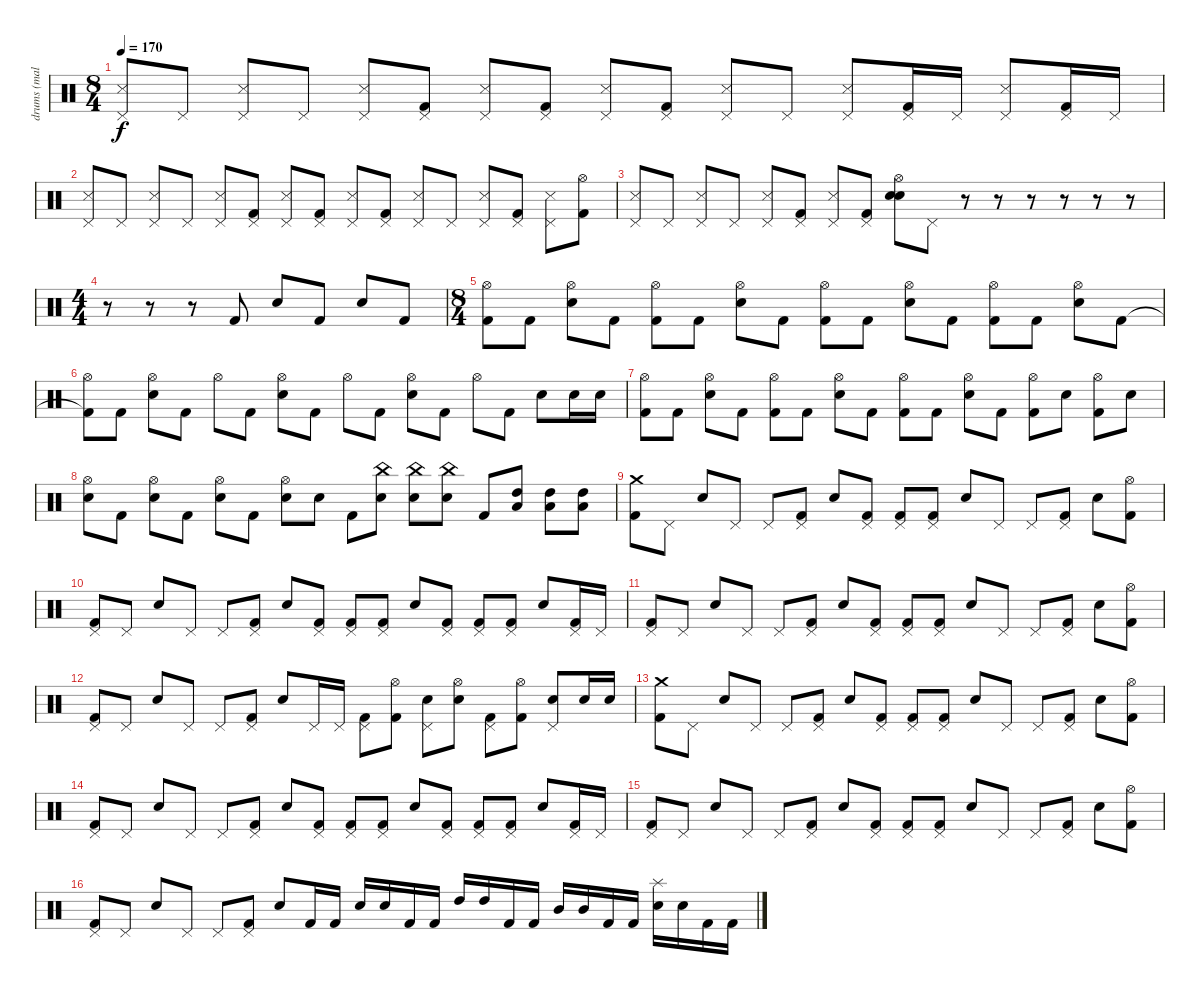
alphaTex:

\track ("drums (male)" "drums (mal") {mute instrument percussion}
\staff {score}
\articulation defaults
\ts (8 4)
\tempo 170
\clef neutral
\ks c
("Snare (side stick) 3" "Pedal Hi-Hat (hit)").8{dy f} "Pedal Hi-Hat (hit)".8 ("Snare (side stick) 3" "Pedal Hi-Hat (hit)").8 "Pedal Hi-Hat (hit)".8 ("Snare (side stick) 3" "Pedal Hi-Hat (hit)").8 ("Kick (hit) 2" "Pedal Hi-Hat (hit)").8 ("Snare (side stick) 3" "Pedal Hi-Hat (hit)").8 ("Kick (hit) 2" "Pedal Hi-Hat (hit)").8 ("Snare (side stick) 3" "Pedal Hi-Hat (hit)").8 ("Kick (hit) 2" "Pedal Hi-Hat (hit)").8 ("Snare (side stick) 3" "Pedal Hi-Hat (hit)").8 "Pedal Hi-Hat (hit)".8 ("Snare (side stick) 3" "Pedal Hi-Hat (hit)").8 ("Kick (hit) 2" "Pedal Hi-Hat (hit)").16 "Pedal Hi-Hat (hit)".16 ("Snare (side stick) 3" "Pedal Hi-Hat (hit)").8 ("Kick (hit) 2" "Pedal Hi-Hat (hit)").16 "Pedal Hi-Hat (hit)".16 |
("Snare (side stick) 3" "Pedal Hi-Hat (hit)").8 "Pedal Hi-Hat (hit)".8 ("Snare (side stick) 3" "Pedal Hi-Hat (hit)").8 "Pedal Hi-Hat (hit)".8 ("Snare (side stick) 3" "Pedal Hi-Hat (hit)").8 ("Kick (hit) 2" "Pedal Hi-Hat (hit)").8 ("Snare (side stick) 3" "Pedal Hi-Hat (hit)").8 ("Kick (hit) 2" "Pedal Hi-Hat (hit)").8 ("Snare (side stick) 3" "Pedal Hi-Hat (hit)").8 ("Kick (hit) 2" "Pedal Hi-Hat (hit)").8 ("Snare (side stick) 3" "Pedal Hi-Hat (hit)").8 "Pedal Hi-Hat (hit)".8 ("Snare (side stick) 3" "Pedal Hi-Hat (hit)").8 ("Kick (hit) 2" "Pedal Hi-Hat (hit)").8 ("Snare (side stick) 3" "Pedal Hi-Hat (hit)").8 ("Kick (hit) 2" "Hi-Hat (open)").8 |
("Snare (side stick) 3" "Pedal Hi-Hat (hit)").8 "Pedal Hi-Hat (hit)".8 ("Snare (side stick) 3" "Pedal Hi-Hat (hit)").8 "Pedal Hi-Hat (hit)".8 ("Snare (side stick) 3" "Pedal Hi-Hat (hit)").8 ("Kick (hit) 2" "Pedal Hi-Hat (hit)").8 ("Snare (side stick) 3" "Pedal Hi-Hat (hit)").8 ("Kick (hit) 2" "Pedal Hi-Hat (hit)").8 ("Electric Snare (hit)" "Metronome (bell)" "Hi-Hat (open)").8 "Pedal Hi-Hat (hit)".8 r.8 r.8 r.8 r.8 r.8 r.8 |
\ts (4 4)
r.8 r.8 r.8 "Kick (hit) 2".8 "Electric Snare (hit)".8 "Kick (hit) 2".8 "Electric Snare (hit)".8 "Kick (hit) 2".8 |
\ts (8 4)
("Kick (hit) 2" "Hi-Hat (open)").8 "Kick (hit) 2".8 ("Electric Snare (hit)" "Hi-Hat (open)").8 "Kick (hit) 2".8 ("Kick (hit) 2" "Hi-Hat (open)").8 "Kick (hit) 2".8 ("Electric Snare (hit)" "Hi-Hat (open)").8 "Kick (hit) 2".8 ("Kick (hit) 2" "Hi-Hat (open)").8 "Kick (hit) 2".8 ("Electric Snare (hit)" "Hi-Hat (open)").8 "Kick (hit) 2".8 ("Kick (hit) 2" "Hi-Hat (open)").8 "Kick (hit) 2".8 ("Electric Snare (hit)" "Hi-Hat (open)").8 "Kick (hit) 2".8 |
("Kick (hit) 2"{t} "Hi-Hat (open)").8 "Kick (hit) 2".8 ("Electric Snare (hit)" "Hi-Hat (open)").8 "Kick (hit) 2".8 "Hi-Hat (open)".8 "Kick (hit) 2".8 ("Electric Snare (hit)" "Hi-Hat (open)").8 "Kick (hit) 2".8 "Hi-Hat (open)".8 "Kick (hit) 2".8 ("Electric Snare (hit)" "Hi-Hat (open)").8 "Kick (hit) 2".8 "Hi-Hat (open)".8 "Kick (hit) 2".8 "Electric Snare (hit)".8 "Electric Snare (hit)".16 "Electric Snare (hit)".16 |
("Kick (hit) 2" "Hi-Hat (open)").8 "Kick (hit) 2".8 ("Electric Snare (hit)" "Hi-Hat (open)").8 "Kick (hit) 2".8 ("Kick (hit) 2" "Hi-Hat (open)").8 "Kick (hit) 2".8 ("Electric Snare (hit)" "Hi-Hat (open)").8 "Kick (hit) 2".8 ("Kick (hit) 2" "Hi-Hat (open)").8 "Kick (hit) 2".8 ("Electric Snare (hit)" "Hi-Hat (open)").8 "Kick (hit) 2".8 ("Kick (hit) 2" "Hi-Hat (open)").8 "Electric Snare (hit)".8 ("Kick (hit) 2" "Hi-Hat (open)").8 "Electric Snare (hit)".8 |
("Electric Snare (hit)" "Hi-Hat (open)").8 "Kick (hit) 2".8 ("Electric Snare (hit)" "Hi-Hat (open)").8 "Kick (hit) 2".8 ("Electric Snare (hit)" "Hi-Hat (open)").8 "Kick (hit) 2".8 ("Electric Snare (hit)" "Hi-Hat (open)").8 "Electric Snare (hit)".8 "Kick (hit) 2".8 ("Electric Snare (hit)" "China (hit)").8 ("Electric Snare (hit)" "China (hit)").8 ("Electric Snare (hit)" "China (hit)").8 "Kick (hit) 2".8 ("High Tom (hit)" "Low Tom (hit)").8 ("High Tom (hit)" "Low Tom (hit)").8 ("High Tom (hit)" "Low Tom (hit)").8 |
("Kick (hit) 2" "Crash medium (hit)").8 "Pedal Hi-Hat (hit)".8 "Electric Snare (hit)".8 "Pedal Hi-Hat (hit)".8 "Pedal Hi-Hat (hit)".8 ("Kick (hit) 2" "Pedal Hi-Hat (hit)").8 "Electric Snare (hit)".8 ("Kick (hit) 2" "Pedal Hi-Hat (hit)").8 ("Kick (hit) 2" "Pedal Hi-Hat (hit)").8 ("Kick (hit) 2" "Pedal Hi-Hat (hit)").8 "Electric Snare (hit)".8 "Pedal Hi-Hat (hit)".8 "Pedal Hi-Hat (hit)".8 ("Kick (hit) 2" "Pedal Hi-Hat (hit)").8 "Electric Snare (hit)".8 ("Kick (hit) 2" "Hi-Hat (open)").8 |
("Kick (hit) 2" "Pedal Hi-Hat (hit)").8 "Pedal Hi-Hat (hit)".8 "Electric Snare (hit)".8 "Pedal Hi-Hat (hit)".8 "Pedal Hi-Hat (hit)".8 ("Kick (hit) 2" "Pedal Hi-Hat (hit)").8 "Electric Snare (hit)".8 ("Kick (hit) 2" "Pedal Hi-Hat (hit)").8 ("Kick (hit) 2" "Pedal Hi-Hat (hit)").8 ("Kick (hit) 2" "Pedal Hi-Hat (hit)").8 "Electric Snare (hit)".8 ("Kick (hit) 2" "Pedal Hi-Hat (hit)").8 ("Kick (hit) 2" "Pedal Hi-Hat (hit)").8 ("Kick (hit) 2" "Pedal Hi-Hat (hit)").8 "Electric Snare (hit)".8 ("Kick (hit) 2" "Pedal Hi-Hat (hit)").16 "Pedal Hi-Hat (hit)".16 |
("Kick (hit) 2" "Pedal Hi-Hat (hit)").8 "Pedal Hi-Hat (hit)".8 "Electric Snare (hit)".8 "Pedal Hi-Hat (hit)".8 "Pedal Hi-Hat (hit)".8 ("Kick (hit) 2" "Pedal Hi-Hat (hit)").8 "Electric Snare (hit)".8 ("Kick (hit) 2" "Pedal Hi-Hat (hit)").8 ("Kick (hit) 2" "Pedal Hi-Hat (hit)").8 ("Kick (hit) 2" "Pedal Hi-Hat (hit)").8 "Electric Snare (hit)".8 "Pedal Hi-Hat (hit)".8 "Pedal Hi-Hat (hit)".8 ("Kick (hit) 2" "Pedal Hi-Hat (hit)").8 "Electric Snare (hit)".8 ("Kick (hit) 2" "Hi-Hat (open)").8 |
("Kick (hit) 2" "Pedal Hi-Hat (hit)").8 "Pedal Hi-Hat (hit)".8 "Electric Snare (hit)".8 "Pedal Hi-Hat (hit)".8 "Pedal Hi-Hat (hit)".8 ("Kick (hit) 2" "Pedal Hi-Hat (hit)").8 "Electric Snare (hit)".8 "Pedal Hi-Hat (hit)".16 "Pedal Hi-Hat (hit)".16 ("Kick (hit) 2" "Pedal Hi-Hat (hit)").8 ("Kick (hit) 2" "Hi-Hat (open)").8 ("Electric Snare (hit)" "Pedal Hi-Hat (hit)").8 ("Electric Snare (hit)" "Hi-Hat (open)").8 ("Kick (hit) 2" "Pedal Hi-Hat (hit)").8 ("Kick (hit) 2" "Hi-Hat (open)").8 ("Electric Snare (hit)" "Pedal Hi-Hat (hit)").8 "Electric Snare (hit)".16 "Electric Snare (hit)".16 |
("Kick (hit) 2" "Crash medium (hit)").8 "Pedal Hi-Hat (hit)".8 "Electric Snare (hit)".8 "Pedal Hi-Hat (hit)".8 "Pedal Hi-Hat (hit)".8 ("Kick (hit) 2" "Pedal Hi-Hat (hit)").8 "Electric Snare (hit)".8 ("Kick (hit) 2" "Pedal Hi-Hat (hit)").8 ("Kick (hit) 2" "Pedal Hi-Hat (hit)").8 ("Kick (hit) 2" "Pedal Hi-Hat (hit)").8 "Electric Snare (hit)".8 "Pedal Hi-Hat (hit)".8 "Pedal Hi-Hat (hit)".8 ("Kick (hit) 2" "Pedal Hi-Hat (hit)").8 "Electric Snare (hit)".8 ("Kick (hit) 2" "Hi-Hat (open)").8 |
("Kick (hit) 2" "Pedal Hi-Hat (hit)").8 "Pedal Hi-Hat (hit)".8 "Electric Snare (hit)".8 "Pedal Hi-Hat (hit)".8 "Pedal Hi-Hat (hit)".8 ("Kick (hit) 2" "Pedal Hi-Hat (hit)").8 "Electric Snare (hit)".8 ("Kick (hit) 2" "Pedal Hi-Hat (hit)").8 ("Kick (hit) 2" "Pedal Hi-Hat (hit)").8 ("Kick (hit) 2" "Pedal Hi-Hat (hit)").8 "Electric Snare (hit)".8 ("Kick (hit) 2" "Pedal Hi-Hat (hit)").8 ("Kick (hit) 2" "Pedal Hi-Hat (hit)").8 ("Kick (hit) 2" "Pedal Hi-Hat (hit)").8 "Electric Snare (hit)".8 ("Kick (hit) 2" "Pedal Hi-Hat (hit)").16 "Pedal Hi-Hat (hit)".16 |
("Kick (hit) 2" "Pedal Hi-Hat (hit)").8 "Pedal Hi-Hat (hit)".8 "Electric Snare (hit)".8 "Pedal Hi-Hat (hit)".8 "Pedal Hi-Hat (hit)".8 ("Kick (hit) 2" "Pedal Hi-Hat (hit)").8 "Electric Snare (hit)".8 ("Kick (hit) 2" "Pedal Hi-Hat (hit)").8 ("Kick (hit) 2" "Pedal Hi-Hat (hit)").8 ("Kick (hit) 2" "Pedal Hi-Hat (hit)").8 "Electric Snare (hit)".8 "Pedal Hi-Hat (hit)".8 "Pedal Hi-Hat (hit)".8 ("Kick (hit) 2" "Pedal Hi-Hat (hit)").8 "Electric Snare (hit)".8 ("Kick (hit) 2" "Hi-Hat (open)").8 |
("Kick (hit) 2" "Pedal Hi-Hat (hit)").8 "Pedal Hi-Hat (hit)".8 "Electric Snare (hit)".8 "Pedal Hi-Hat (hit)".8 "Pedal Hi-Hat (hit)".8 ("Kick (hit) 2" "Pedal Hi-Hat (hit)").8 "Electric Snare (hit)".8 "Kick (hit) 2".16 "Kick (hit) 2".16 "Electric Snare (hit)".16 "Electric Snare (hit)".16 "Kick (hit) 2".16 "Kick (hit) 2".16 "High Tom (hit)".16 "High Tom (hit)".16 "Kick (hit) 2".16 "Kick (hit) 2".16 "Mid Tom (hit)".16 "Mid Tom (hit)".16 "Kick (hit) 2".16 "Kick (hit) 2".16 ("Electric Snare (hit)" "Splash (hit)").16 "Electric Snare (hit)".16 "Kick (hit) 2".16 "Kick (hit) 2".16
